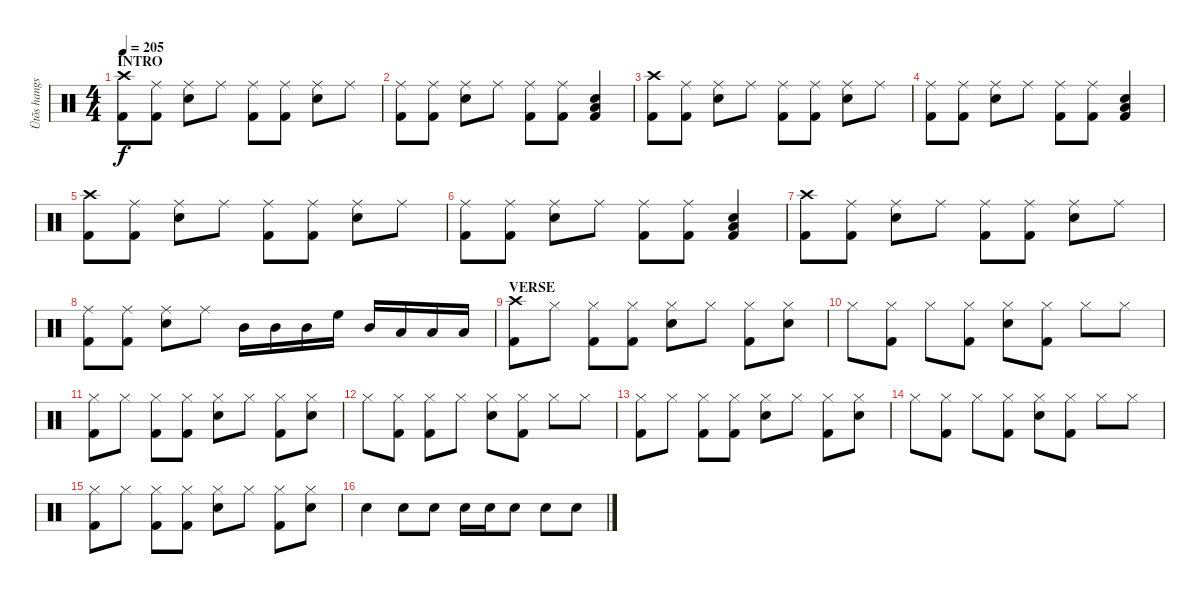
\track ("Ütõs hangszer" "Ütõs hangs") {instrument percussion}
\staff {score}
\articulation defaults
\ts (4 4)
\section ("" "INTRO")
\tempo 205
\clef neutral
\ks c
("Crash high (hit)" "Kick (hit) 2").8{dy f} ("Ride (middle)" "Kick (hit) 2").8 ("Ride (middle)" "Snare (hit) 2").8 "Ride (middle)".8 ("Ride (middle)" "Kick (hit) 2").8 ("Ride (middle)" "Kick (hit) 2").8 ("Ride (middle)" "Snare (hit) 2").8 "Ride (middle)".8 |
("Ride (middle)" "Kick (hit) 2").8 ("Ride (middle)" "Kick (hit) 2").8 ("Ride (middle)" "Snare (hit) 2").8 "Ride (middle)".8 ("Ride (middle)" "Kick (hit) 2").8 ("Ride (middle)" "Kick (hit) 2").8 ("Kick (hit) 2" "Low Tom (hit)" "Snare (hit) 2").4 |
("Crash high (hit)" "Kick (hit) 2").8 ("Ride (middle)" "Kick (hit) 2").8 ("Ride (middle)" "Snare (hit) 2").8 "Ride (middle)".8 ("Ride (middle)" "Kick (hit) 2").8 ("Ride (middle)" "Kick (hit) 2").8 ("Ride (middle)" "Snare (hit) 2").8 "Ride (middle)".8 |
("Ride (middle)" "Kick (hit) 2").8 ("Ride (middle)" "Kick (hit) 2").8 ("Ride (middle)" "Snare (hit) 2").8 "Ride (middle)".8 ("Ride (middle)" "Kick (hit) 2").8 ("Ride (middle)" "Kick (hit) 2").8 ("Kick (hit) 2" "Low Tom (hit)" "Snare (hit) 2").4 |
("Crash high (hit)" "Kick (hit) 2").8 ("Ride (middle)" "Kick (hit) 2").8 ("Ride (middle)" "Snare (hit) 2").8 "Ride (middle)".8 ("Ride (middle)" "Kick (hit) 2").8 ("Ride (middle)" "Kick (hit) 2").8 ("Ride (middle)" "Snare (hit) 2").8 "Ride (middle)".8 |
("Ride (middle)" "Kick (hit) 2").8 ("Ride (middle)" "Kick (hit) 2").8 ("Ride (middle)" "Snare (hit) 2").8 "Ride (middle)".8 ("Ride (middle)" "Kick (hit) 2").8 ("Ride (middle)" "Kick (hit) 2").8 ("Kick (hit) 2" "Low Tom (hit)" "Snare (hit) 2").4 |
("Crash high (hit)" "Kick (hit) 2").8 ("Ride (middle)" "Kick (hit) 2").8 ("Ride (middle)" "Snare (hit) 2").8 "Ride (middle)".8 ("Ride (middle)" "Kick (hit) 2").8 ("Ride (middle)" "Kick (hit) 2").8 ("Ride (middle)" "Snare (hit) 2").8 "Ride (middle)".8 |
("Ride (middle)" "Kick (hit) 2").8 ("Ride (middle)" "Kick (hit) 2").8 ("Ride (middle)" "Snare (hit) 2").8 "Ride (middle)".8 "Mid Tom (hit)".16 "Mid Tom (hit)".16 "Mid Tom (hit)".16 "High Floor Tom (hit)".16 "Mid Tom (hit)".16 "Low Tom (hit)".16 "Low Tom (hit)".16 "Low Tom (hit)".16 |
\section ("" "VERSE")
("Crash high (hit)" "Kick (hit) 2").8 "Hi-Hat (closed)".8 ("Hi-Hat (closed)" "Kick (hit) 2").8 ("Hi-Hat (closed)" "Kick (hit) 2").8 ("Hi-Hat (closed)" "Snare (hit) 2").8 "Hi-Hat (closed)".8 ("Hi-Hat (closed)" "Kick (hit) 2").8 ("Hi-Hat (closed)" "Snare (hit) 2").8 |
"Hi-Hat (closed)".8 ("Hi-Hat (closed)" "Kick (hit) 2").8 "Hi-Hat (closed)".8 ("Hi-Hat (closed)" "Kick (hit) 2").8 ("Hi-Hat (closed)" "Snare (hit) 2").8 ("Hi-Hat (closed)" "Kick (hit) 2").8 "Hi-Hat (closed)".8 "Hi-Hat (closed)".8 |
("Hi-Hat (closed)" "Kick (hit) 2").8 "Hi-Hat (closed)".8 ("Hi-Hat (closed)" "Kick (hit) 2").8 ("Hi-Hat (closed)" "Kick (hit) 2").8 ("Hi-Hat (closed)" "Snare (hit) 2").8 "Hi-Hat (closed)".8 ("Hi-Hat (closed)" "Kick (hit) 2").8 ("Hi-Hat (closed)" "Snare (hit) 2").8 |
"Hi-Hat (closed)".8 ("Hi-Hat (closed)" "Kick (hit) 2").8 ("Hi-Hat (closed)" "Kick (hit) 2").8 "Hi-Hat (closed)".8 ("Hi-Hat (closed)" "Snare (hit) 2").8 ("Hi-Hat (closed)" "Kick (hit) 2").8 "Hi-Hat (closed)".8 "Hi-Hat (closed)".8 |
("Hi-Hat (closed)" "Kick (hit) 2").8 "Hi-Hat (closed)".8 ("Hi-Hat (closed)" "Kick (hit) 2").8 ("Hi-Hat (closed)" "Kick (hit) 2").8 ("Hi-Hat (closed)" "Snare (hit) 2").8 "Hi-Hat (closed)".8 ("Hi-Hat (closed)" "Kick (hit) 2").8 ("Hi-Hat (closed)" "Snare (hit) 2").8 |
"Hi-Hat (closed)".8 ("Hi-Hat (closed)" "Kick (hit) 2").8 "Hi-Hat (closed)".8 ("Hi-Hat (closed)" "Kick (hit) 2").8 ("Hi-Hat (closed)" "Snare (hit) 2").8 ("Hi-Hat (closed)" "Kick (hit) 2").8 "Hi-Hat (closed)".8 "Hi-Hat (closed)".8 |
("Hi-Hat (closed)" "Kick (hit) 2").8 "Hi-Hat (closed)".8 ("Hi-Hat (closed)" "Kick (hit) 2").8 ("Hi-Hat (closed)" "Kick (hit) 2").8 ("Hi-Hat (closed)" "Snare (hit) 2").8 "Hi-Hat (closed)".8 ("Hi-Hat (closed)" "Kick (hit) 2").8 ("Hi-Hat (closed)" "Snare (hit) 2").8 |
"Snare (hit) 2".4 "Snare (hit) 2".8 "Snare (hit) 2".8 "Snare (hit) 2".16 "Snare (hit) 2".16 "Snare (hit) 2".8 "Snare (hit) 2".8 "Snare (hit) 2".8
